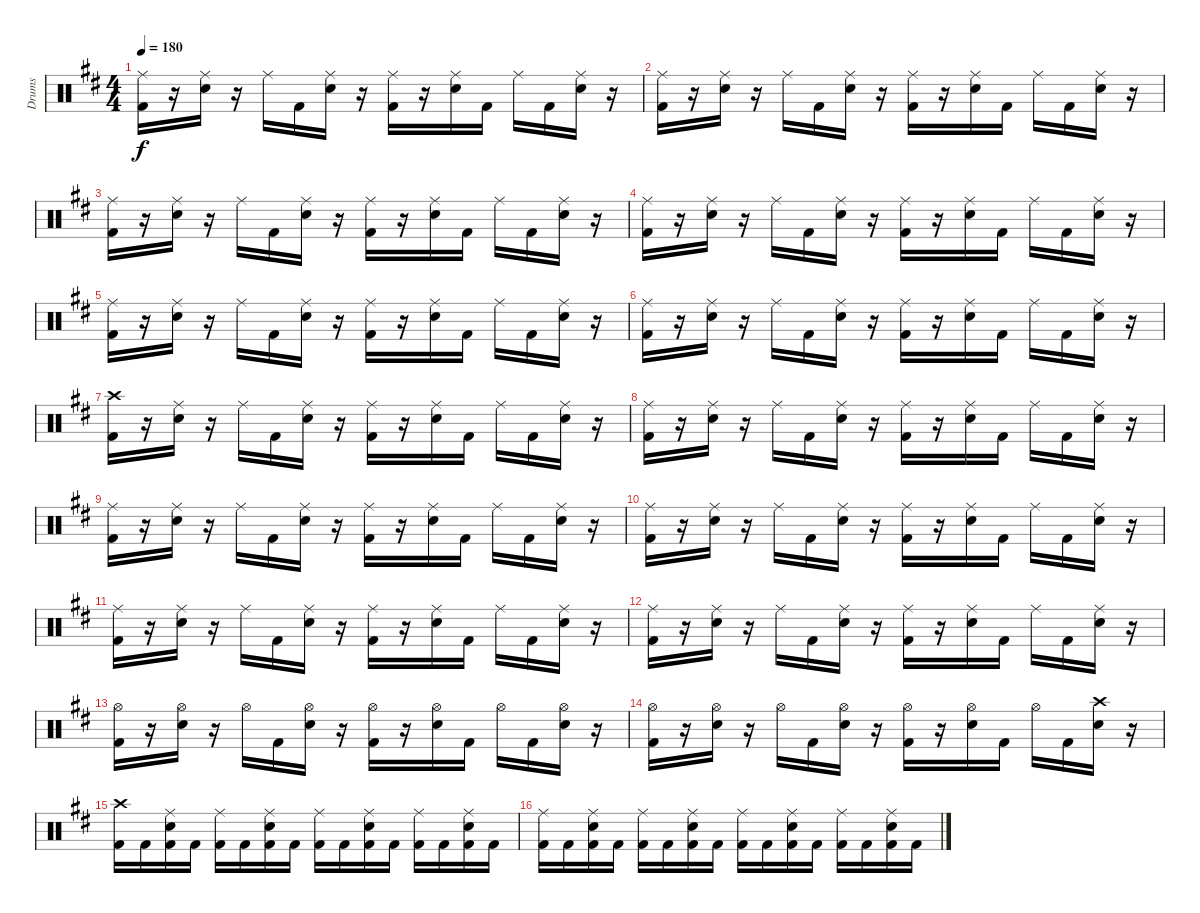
\track ("Drums" "Drums") {instrument percussion}
\staff {score}
\articulation defaults
\ts (4 4)
\tempo 180
\clef neutral
\ks bminor
("Ride (middle)" "Kick (hit) 2").16{dy f} r.16 ("Ride (middle)" "Electric Snare (hit)").16 r.16 "Ride (middle)".16 "Kick (hit) 2".16 ("Ride (middle)" "Electric Snare (hit)").16 r.16 ("Ride (middle)" "Kick (hit) 2").16 r.16 ("Ride (middle)" "Electric Snare (hit)").16 "Kick (hit) 2".16 "Ride (middle)".16 "Kick (hit) 2".16 ("Ride (middle)" "Electric Snare (hit)").16 r.16 |
("Ride (middle)" "Kick (hit) 2").16 r.16 ("Ride (middle)" "Electric Snare (hit)").16 r.16 "Ride (middle)".16 "Kick (hit) 2".16 ("Ride (middle)" "Electric Snare (hit)").16 r.16 ("Ride (middle)" "Kick (hit) 2").16 r.16 ("Ride (middle)" "Electric Snare (hit)").16 "Kick (hit) 2".16 "Ride (middle)".16 "Kick (hit) 2".16 ("Ride (middle)" "Electric Snare (hit)").16 r.16 |
("Ride (middle)" "Kick (hit) 2").16 r.16 ("Ride (middle)" "Electric Snare (hit)").16 r.16 "Ride (middle)".16 "Kick (hit) 2".16 ("Ride (middle)" "Electric Snare (hit)").16 r.16 ("Ride (middle)" "Kick (hit) 2").16 r.16 ("Ride (middle)" "Electric Snare (hit)").16 "Kick (hit) 2".16 "Ride (middle)".16 "Kick (hit) 2".16 ("Ride (middle)" "Electric Snare (hit)").16 r.16 |
("Ride (middle)" "Kick (hit) 2").16 r.16 ("Ride (middle)" "Electric Snare (hit)").16 r.16 "Ride (middle)".16 "Kick (hit) 2".16 ("Ride (middle)" "Electric Snare (hit)").16 r.16 ("Ride (middle)" "Kick (hit) 2").16 r.16 ("Ride (middle)" "Electric Snare (hit)").16 "Kick (hit) 2".16 "Ride (middle)".16 "Kick (hit) 2".16 ("Ride (middle)" "Electric Snare (hit)").16 r.16 |
("Ride (middle)" "Kick (hit) 2").16 r.16 ("Ride (middle)" "Electric Snare (hit)").16 r.16 "Ride (middle)".16 "Kick (hit) 2".16 ("Ride (middle)" "Electric Snare (hit)").16 r.16 ("Ride (middle)" "Kick (hit) 2").16 r.16 ("Ride (middle)" "Electric Snare (hit)").16 "Kick (hit) 2".16 "Ride (middle)".16 "Kick (hit) 2".16 ("Ride (middle)" "Electric Snare (hit)").16 r.16 |
("Ride (middle)" "Kick (hit) 2").16 r.16 ("Ride (middle)" "Electric Snare (hit)").16 r.16 "Ride (middle)".16 "Kick (hit) 2".16 ("Ride (middle)" "Electric Snare (hit)").16 r.16 ("Ride (middle)" "Kick (hit) 2").16 r.16 ("Ride (middle)" "Electric Snare (hit)").16 "Kick (hit) 2".16 "Ride (middle)".16 "Kick (hit) 2".16 ("Ride (middle)" "Electric Snare (hit)").16 r.16 |
("Crash high (hit)" "Kick (hit) 2").16 r.16 ("Ride (middle)" "Electric Snare (hit)").16 r.16 "Ride (middle)".16 "Kick (hit) 2".16 ("Ride (middle)" "Electric Snare (hit)").16 r.16 ("Ride (middle)" "Kick (hit) 2").16 r.16 ("Ride (middle)" "Electric Snare (hit)").16 "Kick (hit) 2".16 "Ride (middle)".16 "Kick (hit) 2".16 ("Ride (middle)" "Electric Snare (hit)").16 r.16 |
("Ride (middle)" "Kick (hit) 2").16 r.16 ("Ride (middle)" "Electric Snare (hit)").16 r.16 "Ride (middle)".16 "Kick (hit) 2".16 ("Ride (middle)" "Electric Snare (hit)").16 r.16 ("Ride (middle)" "Kick (hit) 2").16 r.16 ("Ride (middle)" "Electric Snare (hit)").16 "Kick (hit) 2".16 "Ride (middle)".16 "Kick (hit) 2".16 ("Ride (middle)" "Electric Snare (hit)").16 r.16 |
("Ride (middle)" "Kick (hit) 2").16 r.16 ("Ride (middle)" "Electric Snare (hit)").16 r.16 "Ride (middle)".16 "Kick (hit) 2".16 ("Ride (middle)" "Electric Snare (hit)").16 r.16 ("Ride (middle)" "Kick (hit) 2").16 r.16 ("Ride (middle)" "Electric Snare (hit)").16 "Kick (hit) 2".16 "Ride (middle)".16 "Kick (hit) 2".16 ("Ride (middle)" "Electric Snare (hit)").16 r.16 |
("Ride (middle)" "Kick (hit) 2").16 r.16 ("Ride (middle)" "Electric Snare (hit)").16 r.16 "Ride (middle)".16 "Kick (hit) 2".16 ("Ride (middle)" "Electric Snare (hit)").16 r.16 ("Ride (middle)" "Kick (hit) 2").16 r.16 ("Ride (middle)" "Electric Snare (hit)").16 "Kick (hit) 2".16 "Ride (middle)".16 "Kick (hit) 2".16 ("Ride (middle)" "Electric Snare (hit)").16 r.16 |
("Ride (middle)" "Kick (hit) 2").16 r.16 ("Ride (middle)" "Electric Snare (hit)").16 r.16 "Ride (middle)".16 "Kick (hit) 2".16 ("Ride (middle)" "Electric Snare (hit)").16 r.16 ("Ride (middle)" "Kick (hit) 2").16 r.16 ("Ride (middle)" "Electric Snare (hit)").16 "Kick (hit) 2".16 "Ride (middle)".16 "Kick (hit) 2".16 ("Ride (middle)" "Electric Snare (hit)").16 r.16 |
("Ride (middle)" "Kick (hit) 2").16 r.16 ("Ride (middle)" "Electric Snare (hit)").16 r.16 "Ride (middle)".16 "Kick (hit) 2".16 ("Ride (middle)" "Electric Snare (hit)").16 r.16 ("Ride (middle)" "Kick (hit) 2").16 r.16 ("Ride (middle)" "Electric Snare (hit)").16 "Kick (hit) 2".16 "Ride (middle)".16 "Kick (hit) 2".16 ("Ride (middle)" "Electric Snare (hit)").16 r.16 |
("Hi-Hat (open)" "Kick (hit) 2").16 r.16 ("Hi-Hat (open)" "Electric Snare (hit)").16 r.16 "Hi-Hat (open)".16 "Kick (hit) 2".16 ("Hi-Hat (open)" "Electric Snare (hit)").16 r.16 ("Hi-Hat (open)" "Kick (hit) 2").16 r.16 ("Hi-Hat (open)" "Electric Snare (hit)").16 "Kick (hit) 2".16 "Hi-Hat (open)".16 "Kick (hit) 2".16 ("Hi-Hat (open)" "Electric Snare (hit)").16 r.16 |
("Hi-Hat (open)" "Kick (hit) 2").16 r.16 ("Hi-Hat (open)" "Electric Snare (hit)").16 r.16 "Hi-Hat (open)".16 "Kick (hit) 2".16 ("Hi-Hat (open)" "Electric Snare (hit)").16 r.16 ("Hi-Hat (open)" "Kick (hit) 2").16 r.16 ("Hi-Hat (open)" "Electric Snare (hit)").16 "Kick (hit) 2".16 "Hi-Hat (open)".16 "Kick (hit) 2".16 ("Crash high (hit)" "Electric Snare (hit)").16 r.16 |
("Crash high (hit)" "Kick (hit) 2").16 "Kick (hit) 2".16 ("Ride (middle)" "Electric Snare (hit)" "Kick (hit) 2").16 "Kick (hit) 2".16 ("Ride (middle)" "Kick (hit) 2").16 "Kick (hit) 2".16 ("Ride (middle)" "Electric Snare (hit)" "Kick (hit) 2").16 "Kick (hit) 2".16 ("Ride (middle)" "Kick (hit) 2").16 "Kick (hit) 2".16 ("Ride (middle)" "Electric Snare (hit)" "Kick (hit) 2").16 "Kick (hit) 2".16 ("Ride (middle)" "Kick (hit) 2").16 "Kick (hit) 2".16 ("Ride (middle)" "Electric Snare (hit)" "Kick (hit) 2").16 "Kick (hit) 2".16 |
("Ride (middle)" "Kick (hit) 2").16 "Kick (hit) 2".16 ("Ride (middle)" "Electric Snare (hit)" "Kick (hit) 2").16 "Kick (hit) 2".16 ("Ride (middle)" "Kick (hit) 2").16 "Kick (hit) 2".16 ("Ride (middle)" "Electric Snare (hit)" "Kick (hit) 2").16 "Kick (hit) 2".16 ("Ride (middle)" "Kick (hit) 2").16 "Kick (hit) 2".16 ("Ride (middle)" "Electric Snare (hit)" "Kick (hit) 2").16 "Kick (hit) 2".16 ("Ride (middle)" "Kick (hit) 2").16 "Kick (hit) 2".16 ("Ride (middle)" "Electric Snare (hit)" "Kick (hit) 2").16 "Kick (hit) 2".16
